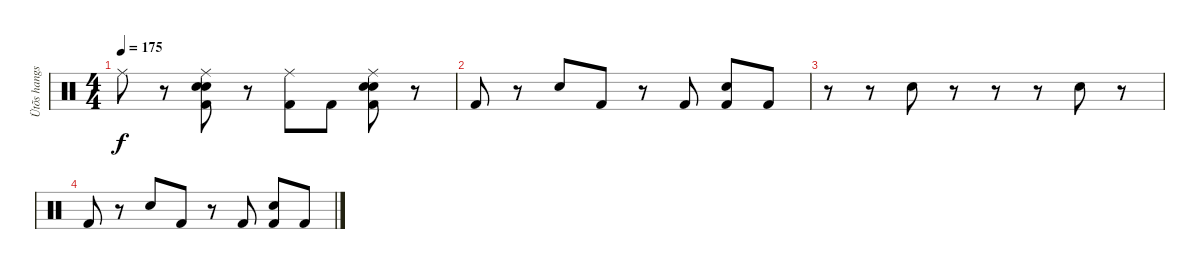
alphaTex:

\track ("Ütõs hangszer" "Ütõs hangs") {instrument percussion}
\staff {score}
\articulation defaults
\ts (4 4)
\tempo 175
\clef neutral
\ks c "Ride (middle)".8{dy f}
r.8 ("Hand Clap (hit)" "Ride (middle)" "Snare (hit) 2" "Kick (hit) 2").8 r.8 ("Ride (middle)" "Kick (hit) 2").8 "Kick (hit) 2".8 ("Hand Clap (hit)" "Ride (middle)" "Snare (hit) 2" "Kick (hit) 2").8 r.8 |
"Kick (hit) 2".8 r.8 "Snare (hit) 2".8 "Kick (hit) 2".8 r.8 "Kick (hit) 2".8 ("Snare (hit) 2" "Kick (hit) 2").8 "Kick (hit) 2".8 |
r.8 r.8 "Snare (hit) 2".8 r.8 r.8 r.8 "Snare (hit) 2".8 r.8 |
"Kick (hit) 2".8 r.8 "Snare (hit) 2".8 "Kick (hit) 2".8 r.8 "Kick (hit) 2".8 ("Snare (hit) 2" "Kick (hit) 2").8 "Kick (hit) 2".8
